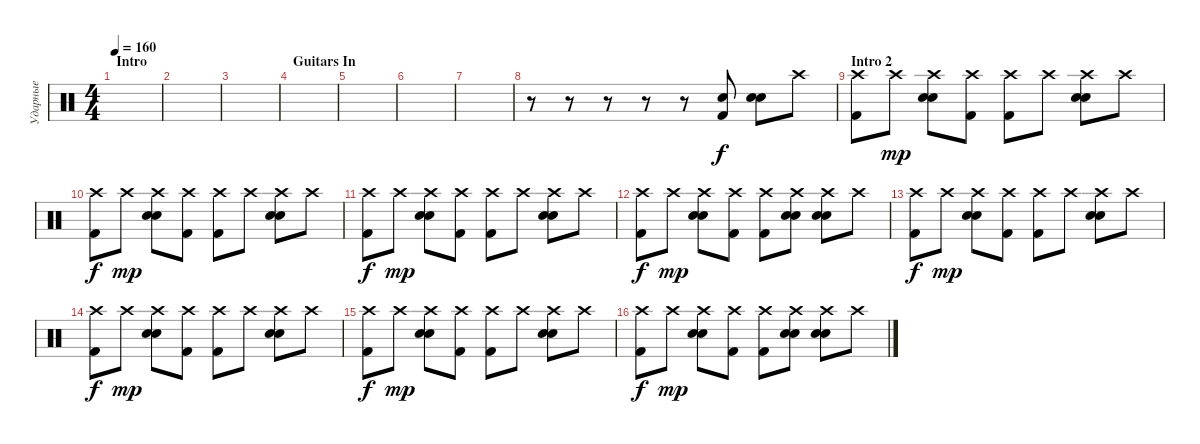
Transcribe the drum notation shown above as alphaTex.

\track ("Ударные" "Ударные") {instrument percussion}
\staff {score}
\articulation defaults
\ts (4 4)
\section ("" "Intro")
\tempo 160
\clef neutral
\ks c
|
|
|
\section ("" "Guitars In")
|
|
|
|
r.8 r.8 r.8 r.8 r.8 ("Kick (hit) 2" "Snare (hit) 2").8 ("Electric Snare (hit)" "Electric Snare (hit)").8 "Crash high (hit)".8 |
\section ("" "Intro 2")
("Crash high (hit)" "Kick (hit) 2").8 "Crash high (hit)".8{dy mp} ("Crash high (hit)" "Electric Snare (hit)" "Electric Snare (hit)").8 ("Crash high (hit)" "Kick (hit) 2").8 ("Crash high (hit)" "Kick (hit) 2").8 "Crash high (hit)".8 ("Crash high (hit)" "Electric Snare (hit)" "Electric Snare (hit)").8 "Crash high (hit)".8 |
("Crash high (hit)" "Kick (hit) 2").8{dy f} "Crash high (hit)".8{dy mp} ("Crash high (hit)" "Electric Snare (hit)" "Electric Snare (hit)").8 ("Crash high (hit)" "Kick (hit) 2").8 ("Crash high (hit)" "Kick (hit) 2").8 "Crash high (hit)".8 ("Crash high (hit)" "Electric Snare (hit)" "Electric Snare (hit)").8 "Crash high (hit)".8 |
("Crash high (hit)" "Kick (hit) 2").8{dy f} "Crash high (hit)".8{dy mp} ("Crash high (hit)" "Electric Snare (hit)" "Electric Snare (hit)").8 ("Crash high (hit)" "Kick (hit) 2").8 ("Crash high (hit)" "Kick (hit) 2").8 "Crash high (hit)".8 ("Crash high (hit)" "Electric Snare (hit)" "Electric Snare (hit)").8 "Crash high (hit)".8 |
("Crash high (hit)" "Kick (hit) 2").8{dy f} "Crash high (hit)".8{dy mp} ("Crash high (hit)" "Electric Snare (hit)" "Electric Snare (hit)").8 ("Crash high (hit)" "Kick (hit) 2").8 ("Crash high (hit)" "Kick (hit) 2").8 ("Crash high (hit)" "Electric Snare (hit)" "Electric Snare (hit)").8 ("Crash high (hit)" "Electric Snare (hit)" "Electric Snare (hit)").8 "Crash high (hit)".8 |
("Crash high (hit)" "Kick (hit) 2").8{dy f} "Crash high (hit)".8{dy mp} ("Crash high (hit)" "Electric Snare (hit)" "Electric Snare (hit)").8 ("Crash high (hit)" "Kick (hit) 2").8 ("Crash high (hit)" "Kick (hit) 2").8 "Crash high (hit)".8 ("Crash high (hit)" "Electric Snare (hit)" "Electric Snare (hit)").8 "Crash high (hit)".8 |
("Crash high (hit)" "Kick (hit) 2").8{dy f} "Crash high (hit)".8{dy mp} ("Crash high (hit)" "Electric Snare (hit)" "Electric Snare (hit)").8 ("Crash high (hit)" "Kick (hit) 2").8 ("Crash high (hit)" "Kick (hit) 2").8 "Crash high (hit)".8 ("Crash high (hit)" "Electric Snare (hit)" "Electric Snare (hit)").8 "Crash high (hit)".8 |
("Crash high (hit)" "Kick (hit) 2").8{dy f} "Crash high (hit)".8{dy mp} ("Crash high (hit)" "Electric Snare (hit)" "Electric Snare (hit)").8 ("Crash high (hit)" "Kick (hit) 2").8 ("Crash high (hit)" "Kick (hit) 2").8 "Crash high (hit)".8 ("Crash high (hit)" "Electric Snare (hit)" "Electric Snare (hit)").8 "Crash high (hit)".8 |
("Crash high (hit)" "Kick (hit) 2").8{dy f} "Crash high (hit)".8{dy mp} ("Crash high (hit)" "Electric Snare (hit)" "Electric Snare (hit)").8 ("Crash high (hit)" "Kick (hit) 2").8 ("Crash high (hit)" "Kick (hit) 2").8 ("Crash high (hit)" "Electric Snare (hit)" "Electric Snare (hit)").8 ("Crash high (hit)" "Electric Snare (hit)" "Electric Snare (hit)").8 "Crash high (hit)".8
